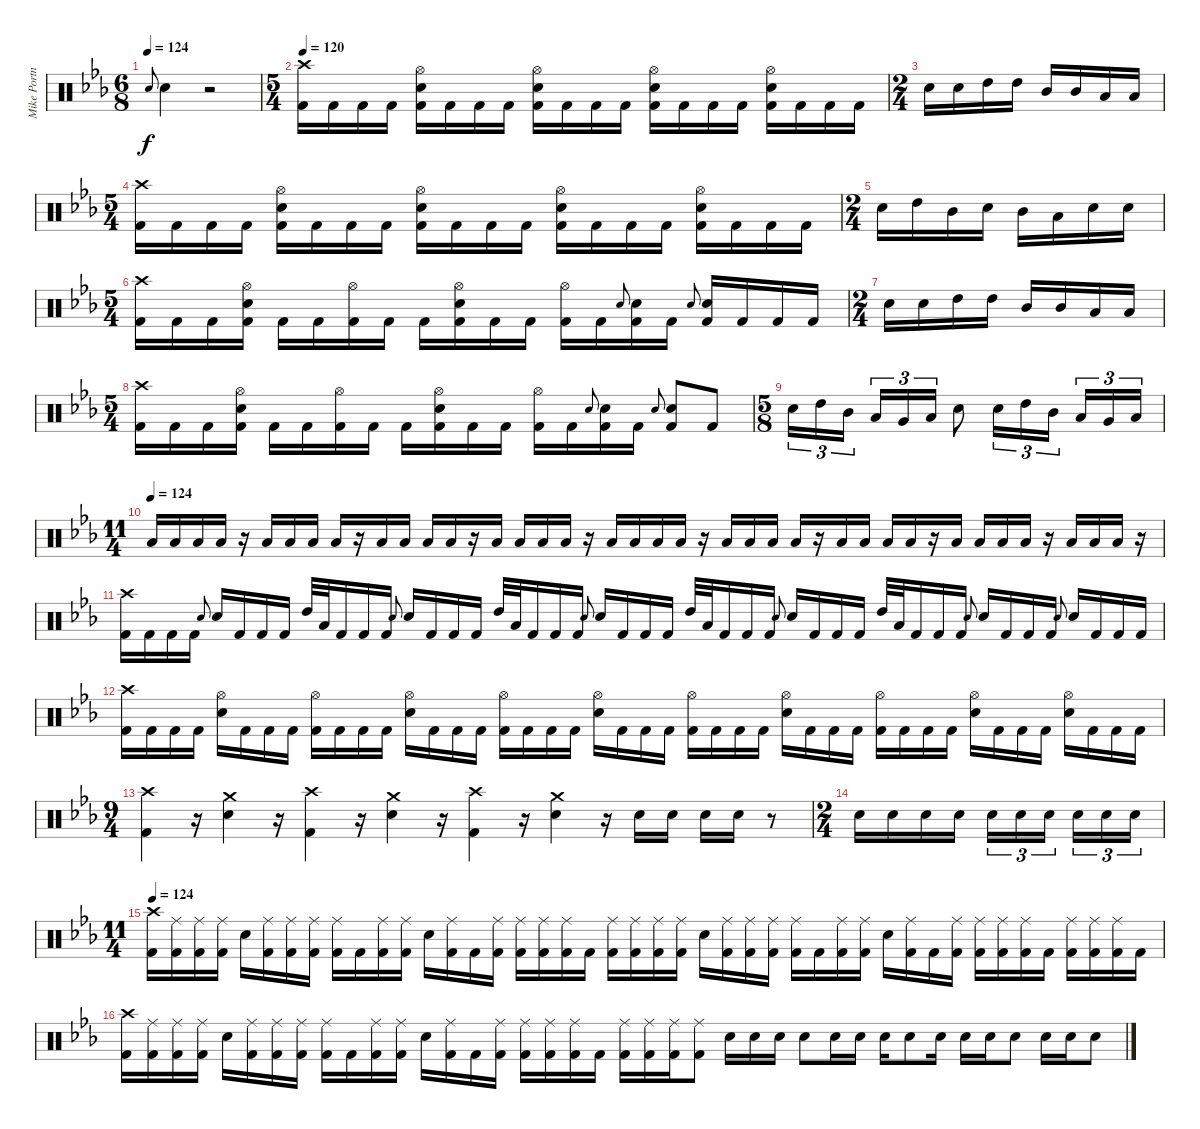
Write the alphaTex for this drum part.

\track ("Mike Portnoy" "Mike Portn") {instrument percussion}
\staff {score}
\articulation defaults
\ts (6 8)
\tempo 124
\clef neutral
\ks eb "Snare (hit) 2".8{gr onbeat dy f} "Snare (hit) 2".4
r.2 |
\ts (5 4)
\tempo 120
("Crash high (hit)" "Kick (hit) 2").16 "Kick (hit) 2".16 "Kick (hit) 2".16 "Kick (hit) 2".16 ("Hi-Hat (open)" "Snare (hit) 2" "Kick (hit) 2").16 "Kick (hit) 2".16 "Kick (hit) 2".16 "Kick (hit) 2".16 ("Hi-Hat (open)" "Snare (hit) 2" "Kick (hit) 2").16 "Kick (hit) 2".16 "Kick (hit) 2".16 "Kick (hit) 2".16 ("Hi-Hat (open)" "Snare (hit) 2" "Kick (hit) 2").16 "Kick (hit) 2".16 "Kick (hit) 2".16 "Kick (hit) 2".16 ("Hi-Hat (open)" "Snare (hit) 2" "Kick (hit) 2").16 "Kick (hit) 2".16 "Kick (hit) 2".16 "Kick (hit) 2".16 |
\ts (2 4)
"Snare (hit) 2".16 "Snare (hit) 2".16 "High Tom (hit)".16 "High Tom (hit)".16 "Mid Tom (hit)".16 "Mid Tom (hit)".16 "Low Tom (hit)".16 "Low Tom (hit)".16 |
\ts (5 4)
("Crash high (hit)" "Kick (hit) 2").16 "Kick (hit) 2".16 "Kick (hit) 2".16 "Kick (hit) 2".16 ("Hi-Hat (open)" "Snare (hit) 2" "Kick (hit) 2").16 "Kick (hit) 2".16 "Kick (hit) 2".16 "Kick (hit) 2".16 ("Hi-Hat (open)" "Snare (hit) 2" "Kick (hit) 2").16 "Kick (hit) 2".16 "Kick (hit) 2".16 "Kick (hit) 2".16 ("Hi-Hat (open)" "Snare (hit) 2" "Kick (hit) 2").16 "Kick (hit) 2".16 "Kick (hit) 2".16 "Kick (hit) 2".16 ("Hi-Hat (open)" "Snare (hit) 2" "Kick (hit) 2").16 "Kick (hit) 2".16 "Kick (hit) 2".16 "Kick (hit) 2".16 |
\ts (2 4)
"Snare (hit) 2".16 "High Tom (hit)".16 "Mid Tom (hit)".16 "Snare (hit) 2".16 "Mid Tom (hit)".16 "Low Tom (hit)".16 "Snare (hit) 2".16 "Snare (hit) 2".16 |
\ts (5 4)
("Crash high (hit)" "Kick (hit) 2").16 "Kick (hit) 2".16 "Kick (hit) 2".16 ("Hi-Hat (open)" "Snare (hit) 2" "Kick (hit) 2").16 "Kick (hit) 2".16 "Kick (hit) 2".16 ("Hi-Hat (open)" "Kick (hit) 2").16 "Kick (hit) 2".16 "Kick (hit) 2".16 ("Hi-Hat (open)" "Snare (hit) 2" "Kick (hit) 2").16 "Kick (hit) 2".16 "Kick (hit) 2".16 ("Hi-Hat (open)" "Kick (hit) 2").16 "Kick (hit) 2".16 "Snare (hit) 2".8{gr onbeat} ("Snare (hit) 2" "Kick (hit) 2").16 "Kick (hit) 2".16 "Snare (hit) 2".8{gr onbeat} ("Snare (hit) 2" "Kick (hit) 2").16 "Kick (hit) 2".16 "Kick (hit) 2".16 "Kick (hit) 2".16 |
\ts (2 4)
"Snare (hit) 2".16 "Snare (hit) 2".16 "High Tom (hit)".16 "High Tom (hit)".16 "Mid Tom (hit)".16 "Mid Tom (hit)".16 "Low Tom (hit)".16 "Low Tom (hit)".16 |
\ts (5 4)
("Crash high (hit)" "Kick (hit) 2").16 "Kick (hit) 2".16 "Kick (hit) 2".16 ("Hi-Hat (open)" "Snare (hit) 2" "Kick (hit) 2").16 "Kick (hit) 2".16 "Kick (hit) 2".16 ("Hi-Hat (open)" "Kick (hit) 2").16 "Kick (hit) 2".16 "Kick (hit) 2".16 ("Hi-Hat (open)" "Snare (hit) 2" "Kick (hit) 2").16 "Kick (hit) 2".16 "Kick (hit) 2".16 ("Hi-Hat (open)" "Kick (hit) 2").16 "Kick (hit) 2".16 "Snare (hit) 2".8{gr onbeat} ("Snare (hit) 2" "Kick (hit) 2").16 "Kick (hit) 2".16 "Snare (hit) 2".8{gr onbeat} ("Snare (hit) 2" "Kick (hit) 2").8 "Kick (hit) 2".8 |
\ts (5 8)
"Snare (hit) 2".16{tu (3 2)} "High Tom (hit)".16{tu (3 2)} "Mid Tom (hit)".16{tu (3 2)} "Low Tom (hit)".16{tu (3 2)} "Very Low Tom (hit)".16{tu (3 2)} "Low Floor Tom (hit)".16{tu (3 2)} "Snare (hit) 2".8 "Snare (hit) 2".16{tu (3 2)} "High Tom (hit)".16{tu (3 2)} "Mid Tom (hit)".16{tu (3 2)} "Low Tom (hit)".16{tu (3 2)} "Very Low Tom (hit)".16{tu (3 2)} "Low Floor Tom (hit)".16{tu (3 2)} |
\ts (11 4)
\tempo (124)
"Low Tom (hit)".16 "Low Tom (hit)".16 "Low Tom (hit)".16 "Low Tom (hit)".16 r.16 "Low Tom (hit)".16 "Low Tom (hit)".16 "Low Tom (hit)".16 "Low Tom (hit)".16 r.16 "Low Tom (hit)".16 "Low Tom (hit)".16 "Low Tom (hit)".16 "Low Tom (hit)".16 r.16 "Low Tom (hit)".16 "Low Tom (hit)".16 "Low Tom (hit)".16 "Low Tom (hit)".16 r.16 "Low Tom (hit)".16 "Low Tom (hit)".16 "Low Tom (hit)".16 "Low Tom (hit)".16 r.16 "Low Tom (hit)".16 "Low Tom (hit)".16 "Low Tom (hit)".16 "Low Tom (hit)".16 r.16 "Low Tom (hit)".16 "Low Tom (hit)".16 "Low Tom (hit)".16 "Low Tom (hit)".16 r.16 "Low Tom (hit)".16 "Low Tom (hit)".16 "Low Tom (hit)".16 "Low Tom (hit)".16 r.16 "Low Tom (hit)".16 "Low Tom (hit)".16 "Low Tom (hit)".16 r.16 |
("Crash high (hit)" "Kick (hit) 2").16 "Kick (hit) 2".16 "Kick (hit) 2".16 "Kick (hit) 2".16 "Snare (hit) 2".8{gr onbeat} "Snare (hit) 2".16 "Kick (hit) 2".16 "Kick (hit) 2".16 "Kick (hit) 2".16 "High Tom (hit)".32 "Low Tom (hit)".32 "Kick (hit) 2".16 "Kick (hit) 2".16 "Kick (hit) 2".16 "Snare (hit) 2".8{gr onbeat} "Snare (hit) 2".16 "Kick (hit) 2".16 "Kick (hit) 2".16 "Kick (hit) 2".16 "High Tom (hit)".32 "Low Tom (hit)".32 "Kick (hit) 2".16 "Kick (hit) 2".16 "Kick (hit) 2".16 "Snare (hit) 2".8{gr onbeat} "Snare (hit) 2".16 "Kick (hit) 2".16 "Kick (hit) 2".16 "Kick (hit) 2".16 "High Tom (hit)".32 "Low Tom (hit)".32 "Kick (hit) 2".16 "Kick (hit) 2".16 "Kick (hit) 2".16 "Snare (hit) 2".8{gr onbeat} "Snare (hit) 2".16 "Kick (hit) 2".16 "Kick (hit) 2".16 "Kick (hit) 2".16 "High Tom (hit)".32 "Low Tom (hit)".32 "Kick (hit) 2".16 "Kick (hit) 2".16 "Kick (hit) 2".16 "Snare (hit) 2".8{gr onbeat} "Snare (hit) 2".16 "Kick (hit) 2".16 "Kick (hit) 2".16 "Kick (hit) 2".16 "Snare (hit) 2".8{gr onbeat} "Snare (hit) 2".16 "Kick (hit) 2".16 "Kick (hit) 2".16 "Kick (hit) 2".16 |
("Crash high (hit)" "Kick (hit) 2").16 "Kick (hit) 2".16 "Kick (hit) 2".16 "Kick (hit) 2".16 ("Hi-Hat (open)" "Snare (hit) 2").16 "Kick (hit) 2".16 "Kick (hit) 2".16 "Kick (hit) 2".16 ("Hi-Hat (open)" "Kick (hit) 2").16 "Kick (hit) 2".16 "Kick (hit) 2".16 "Kick (hit) 2".16 ("Hi-Hat (open)" "Snare (hit) 2").16 "Kick (hit) 2".16 "Kick (hit) 2".16 "Kick (hit) 2".16 ("Hi-Hat (open)" "Kick (hit) 2").16 "Kick (hit) 2".16 "Kick (hit) 2".16 "Kick (hit) 2".16 ("Hi-Hat (open)" "Snare (hit) 2").16 "Kick (hit) 2".16 "Kick (hit) 2".16 "Kick (hit) 2".16 ("Hi-Hat (open)" "Kick (hit) 2").16 "Kick (hit) 2".16 "Kick (hit) 2".16 "Kick (hit) 2".16 ("Hi-Hat (open)" "Snare (hit) 2").16 "Kick (hit) 2".16 "Kick (hit) 2".16 "Kick (hit) 2".16 ("Hi-Hat (open)" "Kick (hit) 2").16 "Kick (hit) 2".16 "Kick (hit) 2".16 "Kick (hit) 2".16 ("Hi-Hat (open)" "Snare (hit) 2").16 "Kick (hit) 2".16 "Kick (hit) 2".16 "Kick (hit) 2".16 ("Hi-Hat (open)" "Snare (hit) 2").16 "Kick (hit) 2".16 "Kick (hit) 2".16 "Kick (hit) 2".16 |
\ts (9 4)
("Crash high (hit)" "Kick (hit) 2").4 r.16 ("Crash medium (hit)" "Snare (hit) 2").4 r.16 ("Crash high (hit)" "Kick (hit) 2").4 r.16 ("Crash medium (hit)" "Snare (hit) 2").4 r.16 ("Crash high (hit)" "Kick (hit) 2").4 r.16 ("Crash medium (hit)" "Snare (hit) 2").4 r.16 "Snare (hit) 2".16 "Snare (hit) 2".16 "Snare (hit) 2".16 "Snare (hit) 2".16 r.8 |
\ts (2 4)
"Snare (hit) 2".16 "Snare (hit) 2".16 "Snare (hit) 2".16 "Snare (hit) 2".16 "Snare (hit) 2".16{tu (3 2)} "Snare (hit) 2".16{tu (3 2)} "Snare (hit) 2".16{tu (3 2) beam splitsecondary} "Snare (hit) 2".16{tu (3 2)} "Snare (hit) 2".16{tu (3 2)} "Snare (hit) 2".16{tu (3 2)} |
\ts (11 4)
\tempo 124
("Crash high (hit)" "Kick (hit) 2").16 ("Ride (middle)" "Kick (hit) 2").16 ("Ride (middle)" "Kick (hit) 2").16 ("Ride (middle)" "Kick (hit) 2").16 "Snare (hit) 2".16 ("Ride (middle)" "Kick (hit) 2").16 ("Ride (middle)" "Kick (hit) 2").16 ("Ride (middle)" "Kick (hit) 2").16 ("Ride (middle)" "Kick (hit) 2").16 "Kick (hit) 2".16 ("Ride (middle)" "Kick (hit) 2").16 ("Ride (middle)" "Kick (hit) 2").16 "Snare (hit) 2".16 ("Ride (middle)" "Kick (hit) 2").16 "Kick (hit) 2".16 ("Ride (middle)" "Kick (hit) 2").16 ("Ride (middle)" "Kick (hit) 2").16 ("Ride (middle)" "Kick (hit) 2").16 ("Ride (middle)" "Kick (hit) 2").16 "Kick (hit) 2".16 ("Ride (middle)" "Kick (hit) 2").16 ("Ride (middle)" "Kick (hit) 2").16 ("Ride (middle)" "Kick (hit) 2").16 ("Ride (middle)" "Kick (hit) 2").16 "Snare (hit) 2".16 ("Ride (middle)" "Kick (hit) 2").16 ("Ride (middle)" "Kick (hit) 2").16 ("Ride (middle)" "Kick (hit) 2").16 ("Ride (middle)" "Kick (hit) 2").16 "Kick (hit) 2".16 ("Ride (middle)" "Kick (hit) 2").16 ("Ride (middle)" "Kick (hit) 2").16 "Snare (hit) 2".16 ("Ride (middle)" "Kick (hit) 2").16 "Kick (hit) 2".16 ("Ride (middle)" "Kick (hit) 2").16 ("Ride (middle)" "Kick (hit) 2").16 ("Ride (middle)" "Kick (hit) 2").16 ("Ride (middle)" "Kick (hit) 2").16 "Kick (hit) 2".16 ("Ride (middle)" "Kick (hit) 2").16 ("Ride (middle)" "Kick (hit) 2").16 ("Ride (middle)" "Kick (hit) 2").16 "Kick (hit) 2".16 |
("Crash high (hit)" "Kick (hit) 2").16 ("Ride (middle)" "Kick (hit) 2").16 ("Ride (middle)" "Kick (hit) 2").16 ("Ride (middle)" "Kick (hit) 2").16 "Snare (hit) 2".16 ("Ride (middle)" "Kick (hit) 2").16 ("Ride (middle)" "Kick (hit) 2").16 ("Ride (middle)" "Kick (hit) 2").16 ("Ride (middle)" "Kick (hit) 2").16 "Kick (hit) 2".16 ("Ride (middle)" "Kick (hit) 2").16 ("Ride (middle)" "Kick (hit) 2").16 "Snare (hit) 2".16 ("Ride (middle)" "Kick (hit) 2").16 "Kick (hit) 2".16 ("Ride (middle)" "Kick (hit) 2").16 ("Ride (middle)" "Kick (hit) 2").16 ("Ride (middle)" "Kick (hit) 2").16 ("Ride (middle)" "Kick (hit) 2").16 "Kick (hit) 2".16 ("Ride (middle)" "Kick (hit) 2").16 ("Ride (middle)" "Kick (hit) 2").16 ("Ride (middle)" "Kick (hit) 2").16 ("Ride (middle)" "Kick (hit) 2").8 "Snare (hit) 2".16 "Snare (hit) 2".16 "Snare (hit) 2".16 "Snare (hit) 2".8 "Snare (hit) 2".16 "Snare (hit) 2".16 "Snare (hit) 2".16 "Snare (hit) 2".8 "Snare (hit) 2".16 "Snare (hit) 2".16 "Snare (hit) 2".16 "Snare (hit) 2".8 "Snare (hit) 2".16 "Snare (hit) 2".16 "Snare (hit) 2".8
